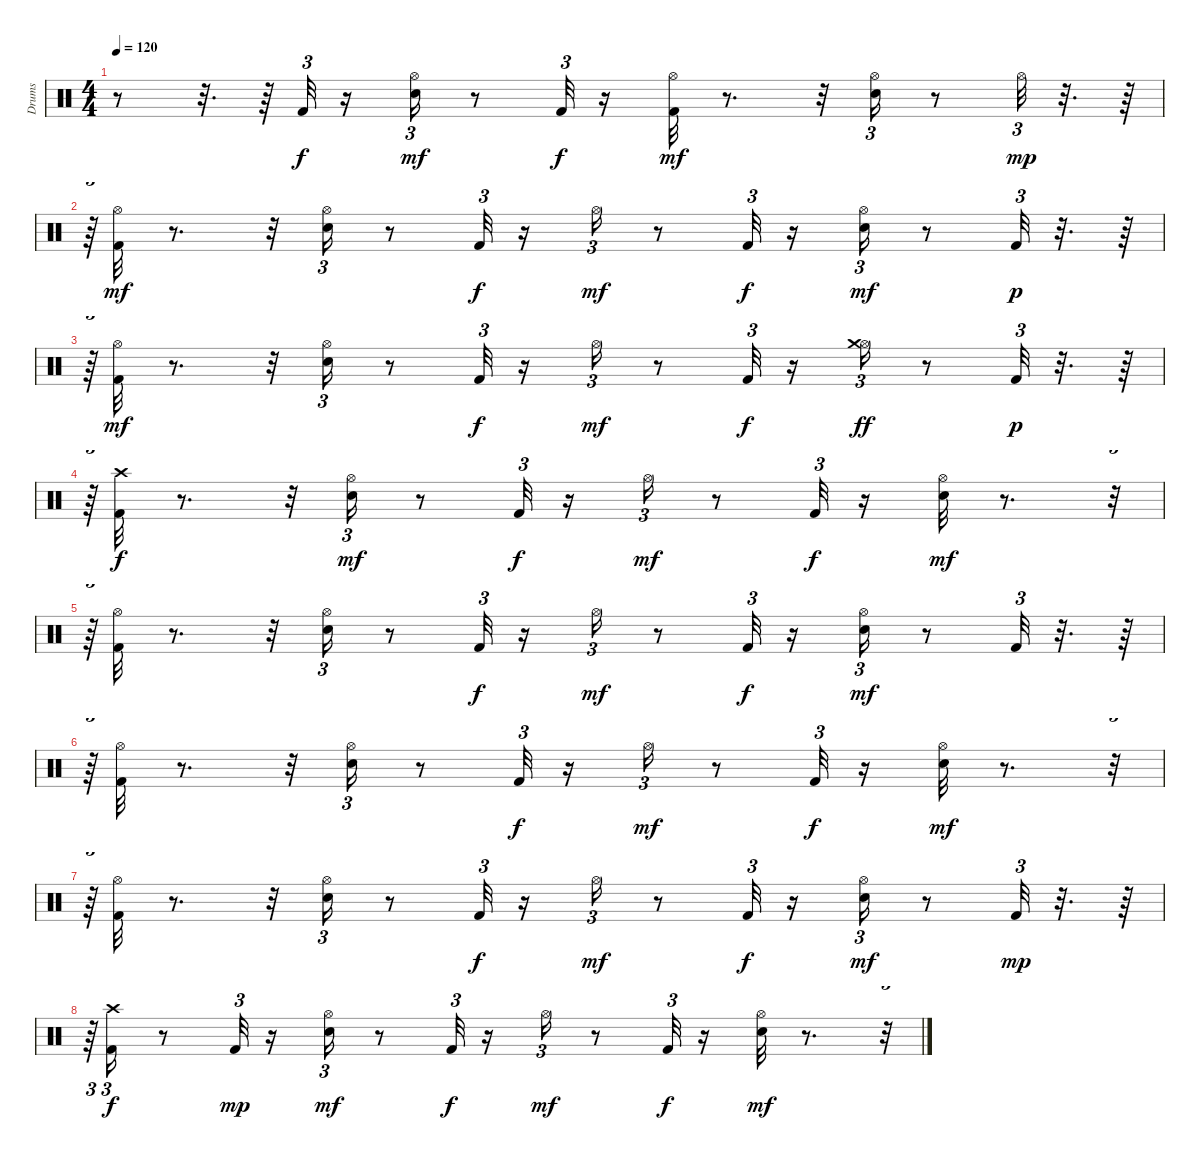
\track ("Drums" "Drums") {instrument percussion}
\staff {score}
\articulation defaults
\ts (4 4)
\tempo 120
\clef neutral
\ks c
r.8{dy f} r.32{d} r.64 "Kick (hit) 2".32{tu (3 2)} r.16 ("Electric Snare (hit)" "Hi-Hat (open)").16{tu (3 2) dy mf} r.8 "Kick (hit) 2".32{tu (3 2) dy f} r.16 ("Kick (hit) 2" "Hi-Hat (open)").32{dy mf} r.8{d} r.32 ("Electric Snare (hit)" "Hi-Hat (open)").16{tu (3 2)} r.8 "Hi-Hat (open)".32{tu (3 2) dy mp} r.32{d} r.64 |
r.64{tu (3 2)} ("Kick (hit) 2" "Hi-Hat (open)").32{dy mf} r.8{d} r.32 ("Electric Snare (hit)" "Hi-Hat (open)").16{tu (3 2)} r.8 "Kick (hit) 2".32{tu (3 2) dy f} r.16 "Hi-Hat (open)".16{tu (3 2) dy mf} r.8 "Kick (hit) 2".32{tu (3 2) dy f} r.16 ("Electric Snare (hit)" "Hi-Hat (open)").16{tu (3 2) dy mf} r.8 "Kick (hit) 2".32{tu (3 2) dy p} r.32{d} r.64 |
r.64{tu (3 2)} ("Kick (hit) 2" "Hi-Hat (open)").32{dy mf} r.8{d} r.32 ("Electric Snare (hit)" "Hi-Hat (open)").16{tu (3 2)} r.8 "Kick (hit) 2".32{tu (3 2) dy f} r.16 "Hi-Hat (open)".16{tu (3 2) dy mf} r.8 "Kick (hit) 2".32{tu (3 2) dy f} r.16 ("Hi-Hat (open)" "Crash medium (hit)").16{tu (3 2) dy ff} r.8 "Kick (hit) 2".32{tu (3 2) dy p} r.32{d} r.64 |
r.64{tu (3 2)} ("Kick (hit) 2" "Crash high (hit)").32{dy f} r.8{d} r.32 ("Electric Snare (hit)" "Hi-Hat (open)").16{tu (3 2) dy mf} r.8 "Kick (hit) 2".32{tu (3 2) dy f} r.16 "Hi-Hat (open)".16{tu (3 2) dy mf} r.8 "Kick (hit) 2".32{tu (3 2) dy f} r.16 ("Electric Snare (hit)" "Hi-Hat (open)").32{dy mf} r.8{d} r.32{tu (3 2)} |
r.64{tu (3 2)} ("Kick (hit) 2" "Hi-Hat (open)").32 r.8{d} r.32 ("Electric Snare (hit)" "Hi-Hat (open)").16{tu (3 2)} r.8 "Kick (hit) 2".32{tu (3 2) dy f} r.16 "Hi-Hat (open)".16{tu (3 2) dy mf} r.8 "Kick (hit) 2".32{tu (3 2) dy f} r.16 ("Electric Snare (hit)" "Hi-Hat (open)").16{tu (3 2) dy mf} r.8 "Kick (hit) 2".32{tu (3 2)} r.32{d} r.64 |
r.64{tu (3 2)} ("Kick (hit) 2" "Hi-Hat (open)").32 r.8{d} r.32 ("Electric Snare (hit)" "Hi-Hat (open)").16{tu (3 2)} r.8 "Kick (hit) 2".32{tu (3 2) dy f} r.16 "Hi-Hat (open)".16{tu (3 2) dy mf} r.8 "Kick (hit) 2".32{tu (3 2) dy f} r.16 ("Electric Snare (hit)" "Hi-Hat (open)").32{dy mf} r.8{d} r.32{tu (3 2)} |
r.64{tu (3 2)} ("Kick (hit) 2" "Hi-Hat (open)").32 r.8{d} r.32 ("Electric Snare (hit)" "Hi-Hat (open)").16{tu (3 2)} r.8 "Kick (hit) 2".32{tu (3 2) dy f} r.16 "Hi-Hat (open)".16{tu (3 2) dy mf} r.8 "Kick (hit) 2".32{tu (3 2) dy f} r.16 ("Electric Snare (hit)" "Hi-Hat (open)").16{tu (3 2) dy mf} r.8 "Kick (hit) 2".32{tu (3 2) dy mp} r.32{d} r.64 |
r.64{tu (3 2)} ("Kick (hit) 2" "Crash high (hit)").16{tu (3 2) dy f} r.8 "Kick (hit) 2".32{tu (3 2) dy mp} r.16 ("Electric Snare (hit)" "Hi-Hat (open)").16{tu (3 2) dy mf} r.8 "Kick (hit) 2".32{tu (3 2) dy f} r.16 "Hi-Hat (open)".16{tu (3 2) dy mf} r.8 "Kick (hit) 2".32{tu (3 2) dy f} r.16 ("Electric Snare (hit)" "Hi-Hat (open)").32{dy mf} r.8{d} r.32{tu (3 2)}
